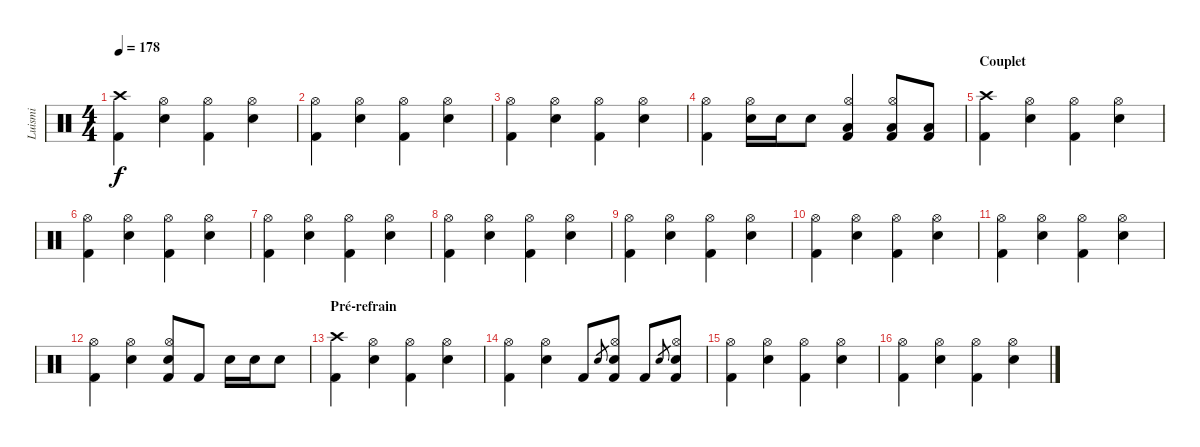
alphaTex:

\track ("Luismi" "Luismi") {instrument percussion}
\staff {score}
\articulation defaults
\ts (4 4)
\tempo 178
\clef neutral
\ks c
("Crash high (hit)" "Kick (hit) 2").4{dy f} ("Hi-Hat (open)" "Snare (hit) 2").4 ("Hi-Hat (open)" "Kick (hit) 2").4 ("Hi-Hat (open)" "Snare (hit) 2").4 |
("Hi-Hat (open)" "Kick (hit) 2").4 ("Hi-Hat (open)" "Snare (hit) 2").4 ("Hi-Hat (open)" "Kick (hit) 2").4 ("Hi-Hat (open)" "Snare (hit) 2").4 |
("Hi-Hat (open)" "Kick (hit) 2").4 ("Hi-Hat (open)" "Snare (hit) 2").4 ("Hi-Hat (open)" "Kick (hit) 2").4 ("Hi-Hat (open)" "Snare (hit) 2").4 |
("Hi-Hat (open)" "Kick (hit) 2").4 ("Hi-Hat (open)" "Snare (hit) 2").16 "Snare (hit) 2".16 "Snare (hit) 2".8 ("Hi-Hat (open)" "Low Floor Tom (hit)" "Kick (hit) 2").4 ("Hi-Hat (open)" "Low Tom (hit)" "Kick (hit) 2").8 ("Low Floor Tom (hit)" "Kick (hit) 2").8 |
\section ("" "Couplet")
("Crash high (hit)" "Kick (hit) 2").4 ("Hi-Hat (open)" "Snare (hit) 2").4 ("Hi-Hat (open)" "Kick (hit) 2").4 ("Hi-Hat (open)" "Snare (hit) 2").4 |
("Hi-Hat (open)" "Kick (hit) 2").4 ("Hi-Hat (open)" "Snare (hit) 2").4 ("Hi-Hat (open)" "Kick (hit) 2").4 ("Hi-Hat (open)" "Snare (hit) 2").4 |
("Hi-Hat (open)" "Kick (hit) 2").4 ("Hi-Hat (open)" "Snare (hit) 2").4 ("Hi-Hat (open)" "Kick (hit) 2").4 ("Hi-Hat (open)" "Snare (hit) 2").4 |
("Hi-Hat (open)" "Kick (hit) 2").4 ("Hi-Hat (open)" "Snare (hit) 2").4 ("Hi-Hat (open)" "Kick (hit) 2").4 ("Hi-Hat (open)" "Snare (hit) 2").4 |
("Hi-Hat (open)" "Kick (hit) 2").4 ("Hi-Hat (open)" "Snare (hit) 2").4 ("Hi-Hat (open)" "Kick (hit) 2").4 ("Hi-Hat (open)" "Snare (hit) 2").4 |
("Hi-Hat (open)" "Kick (hit) 2").4 ("Hi-Hat (open)" "Snare (hit) 2").4 ("Hi-Hat (open)" "Kick (hit) 2").4 ("Hi-Hat (open)" "Snare (hit) 2").4 |
("Hi-Hat (open)" "Kick (hit) 2").4 ("Hi-Hat (open)" "Snare (hit) 2").4 ("Hi-Hat (open)" "Kick (hit) 2").4 ("Hi-Hat (open)" "Snare (hit) 2").4 |
("Hi-Hat (open)" "Kick (hit) 2").4 ("Hi-Hat (open)" "Snare (hit) 2").4 ("Hi-Hat (open)" "Snare (hit) 2" "Kick (hit) 2").8 "Kick (hit) 2".8 "Snare (hit) 2".16 "Snare (hit) 2".16 "Snare (hit) 2".8 |
\section ("" "Pré-refrain")
("Crash high (hit)" "Kick (hit) 2").4 ("Hi-Hat (open)" "Snare (hit) 2").4 ("Hi-Hat (open)" "Kick (hit) 2").4 ("Hi-Hat (open)" "Snare (hit) 2").4 |
("Hi-Hat (open)" "Kick (hit) 2").4 ("Hi-Hat (open)" "Snare (hit) 2").4 "Kick (hit) 2".8 "Snare (hit) 2".8{gr} ("Hi-Hat (open)" "Snare (hit) 2" "Kick (hit) 2").8 "Kick (hit) 2".8 "Snare (hit) 2".8{gr} ("Hi-Hat (open)" "Snare (hit) 2" "Kick (hit) 2").8 |
("Hi-Hat (open)" "Kick (hit) 2").4 ("Hi-Hat (open)" "Snare (hit) 2").4 ("Hi-Hat (open)" "Kick (hit) 2").4 ("Hi-Hat (open)" "Snare (hit) 2").4 |
("Hi-Hat (open)" "Kick (hit) 2").4 ("Hi-Hat (open)" "Snare (hit) 2").4 ("Hi-Hat (open)" "Kick (hit) 2").4 ("Hi-Hat (open)" "Snare (hit) 2").4
